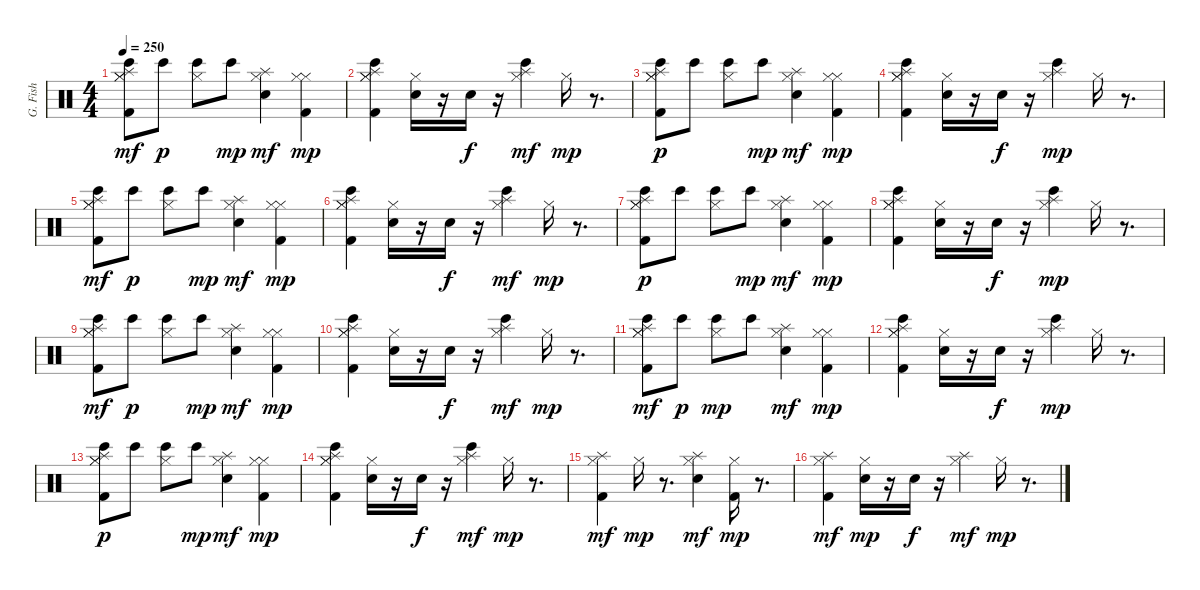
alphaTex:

\track ("G. Fish" "G. Fish") {instrument percussion}
\staff {score}
\articulation defaults
\ts (4 4)
\tempo 250
\clef neutral
\ks c
("Kick (hit) 2" "Hi-Hat (closed)" "Hi-Hat (closed)" "Bongo High (hit)" "Splash (hit)").8{dy mf} "Bongo High (hit)".8{dy p} ("Hi-Hat (closed)" "Bongo High (hit)").8 "Bongo High (hit)".8{dy mp} ("Hi-Hat (closed)" "Electric Snare (hit)" "Splash (hit)").4{dy mf} ("Kick (hit) 2" "Hi-Hat (closed)" "Hi-Hat (closed)").4{dy mp} |
("Kick (hit) 2" "Hi-Hat (closed)" "Hi-Hat (closed)" "Splash (hit)" "Bongo High (hit)").4 ("Electric Snare (hit)" "Hi-Hat (closed)").16 r.16 "Electric Snare (hit)".16{dy f} r.16 ("Hi-Hat (closed)" "Bongo High (hit)" "Splash (hit)").4{dy mf} "Hi-Hat (closed)".16{dy mp} r.8{d} |
("Kick (hit) 2" "Hi-Hat (closed)" "Splash (hit)" "Bongo High (hit)" "Hi-Hat (closed)").8{dy p} "Bongo High (hit)".8 ("Hi-Hat (closed)" "Bongo High (hit)").8 "Bongo High (hit)".8{dy mp} ("Hi-Hat (closed)" "Electric Snare (hit)" "Splash (hit)").4{dy mf} ("Kick (hit) 2" "Hi-Hat (closed)" "Hi-Hat (closed)").4{dy mp} |
("Splash (hit)" "Hi-Hat (closed)" "Kick (hit) 2" "Hi-Hat (closed)" "Bongo High (hit)").4 ("Hi-Hat (closed)" "Electric Snare (hit)").16 r.16 "Electric Snare (hit)".16{dy f} r.16 ("Splash (hit)" "Hi-Hat (closed)" "Bongo High (hit)").4{dy mp} "Hi-Hat (closed)".16 r.8{d} |
("Hi-Hat (closed)" "Kick (hit) 2" "Hi-Hat (closed)" "Bongo High (hit)" "Splash (hit)").8{dy mf} "Bongo High (hit)".8{dy p} ("Hi-Hat (closed)" "Bongo High (hit)").8 "Bongo High (hit)".8{dy mp} ("Hi-Hat (closed)" "Electric Snare (hit)" "Splash (hit)").4{dy mf} ("Kick (hit) 2" "Hi-Hat (closed)" "Hi-Hat (closed)").4{dy mp} |
("Kick (hit) 2" "Hi-Hat (closed)" "Hi-Hat (closed)" "Splash (hit)" "Bongo High (hit)").4 ("Electric Snare (hit)" "Hi-Hat (closed)").16 r.16 "Electric Snare (hit)".16{dy f} r.16 ("Hi-Hat (closed)" "Bongo High (hit)" "Splash (hit)").4{dy mf} "Hi-Hat (closed)".16{dy mp} r.8{d} |
("Kick (hit) 2" "Hi-Hat (closed)" "Splash (hit)" "Bongo High (hit)" "Hi-Hat (closed)").8{dy p} "Bongo High (hit)".8 ("Hi-Hat (closed)" "Bongo High (hit)").8 "Bongo High (hit)".8{dy mp} ("Hi-Hat (closed)" "Electric Snare (hit)" "Splash (hit)").4{dy mf} ("Kick (hit) 2" "Hi-Hat (closed)" "Hi-Hat (closed)").4{dy mp} |
("Splash (hit)" "Hi-Hat (closed)" "Kick (hit) 2" "Hi-Hat (closed)" "Bongo High (hit)").4 ("Hi-Hat (closed)" "Electric Snare (hit)").16 r.16 "Electric Snare (hit)".16{dy f} r.16 ("Splash (hit)" "Hi-Hat (closed)" "Bongo High (hit)").4{dy mp} "Hi-Hat (closed)".16 r.8{d} |
("Hi-Hat (closed)" "Kick (hit) 2" "Hi-Hat (closed)" "Bongo High (hit)" "Splash (hit)").8{dy mf} "Bongo High (hit)".8{dy p} ("Hi-Hat (closed)" "Bongo High (hit)").8 "Bongo High (hit)".8{dy mp} ("Hi-Hat (closed)" "Electric Snare (hit)" "Splash (hit)").4{dy mf} ("Kick (hit) 2" "Hi-Hat (closed)" "Hi-Hat (closed)").4{dy mp} |
("Kick (hit) 2" "Hi-Hat (closed)" "Hi-Hat (closed)" "Splash (hit)" "Bongo High (hit)").4 ("Electric Snare (hit)" "Hi-Hat (closed)").16 r.16 "Electric Snare (hit)".16{dy f} r.16 ("Hi-Hat (closed)" "Bongo High (hit)" "Splash (hit)").4{dy mf} "Hi-Hat (closed)".16{dy mp} r.8{d} |
("Bongo High (hit)" "Hi-Hat (closed)" "Kick (hit) 2" "Hi-Hat (closed)" "Splash (hit)").8{dy mf} "Bongo High (hit)".8{dy p} ("Bongo High (hit)" "Hi-Hat (closed)").8{dy mp} "Bongo High (hit)".8 ("Hi-Hat (closed)" "Electric Snare (hit)" "Splash (hit)").4{dy mf} ("Hi-Hat (closed)" "Kick (hit) 2" "Hi-Hat (closed)").4{dy mp} |
("Hi-Hat (closed)" "Bongo High (hit)" "Splash (hit)" "Hi-Hat (closed)" "Kick (hit) 2").4 ("Hi-Hat (closed)" "Electric Snare (hit)").16 r.16 "Electric Snare (hit)".16{dy f} r.16 ("Bongo High (hit)" "Splash (hit)" "Hi-Hat (closed)").4{dy mp} "Hi-Hat (closed)".16 r.8{d} |
("Hi-Hat (closed)" "Hi-Hat (closed)" "Kick (hit) 2" "Splash (hit)" "Bongo High (hit)").8{dy p} "Bongo High (hit)".8 ("Hi-Hat (closed)" "Bongo High (hit)").8 "Bongo High (hit)".8{dy mp} ("Hi-Hat (closed)" "Electric Snare (hit)" "Splash (hit)").4{dy mf} ("Hi-Hat (closed)" "Kick (hit) 2" "Hi-Hat (closed)").4{dy mp} |
("Hi-Hat (closed)" "Kick (hit) 2" "Hi-Hat (closed)" "Splash (hit)" "Bongo High (hit)").4 ("Electric Snare (hit)" "Hi-Hat (closed)").16 r.16 "Electric Snare (hit)".16{dy f} r.16 ("Bongo High (hit)" "Hi-Hat (closed)" "Splash (hit)").4{dy mf} "Hi-Hat (closed)".16{dy mp} r.8{d} |
("Hi-Hat (closed)" "Kick (hit) 2" "Splash (hit)").4{dy mf} "Hi-Hat (closed)".16{dy mp} r.8{d} ("Hi-Hat (closed)" "Electric Snare (hit)" "Splash (hit)").4{dy mf} ("Kick (hit) 2" "Hi-Hat (closed)").16{dy mp} r.8{d} |
("Kick (hit) 2" "Hi-Hat (closed)" "Splash (hit)").4{dy mf} ("Electric Snare (hit)" "Hi-Hat (closed)").16{dy mp} r.16 "Electric Snare (hit)".16{dy f} r.16 ("Hi-Hat (closed)" "Splash (hit)").4{dy mf} "Hi-Hat (closed)".16{dy mp} r.8{d}
